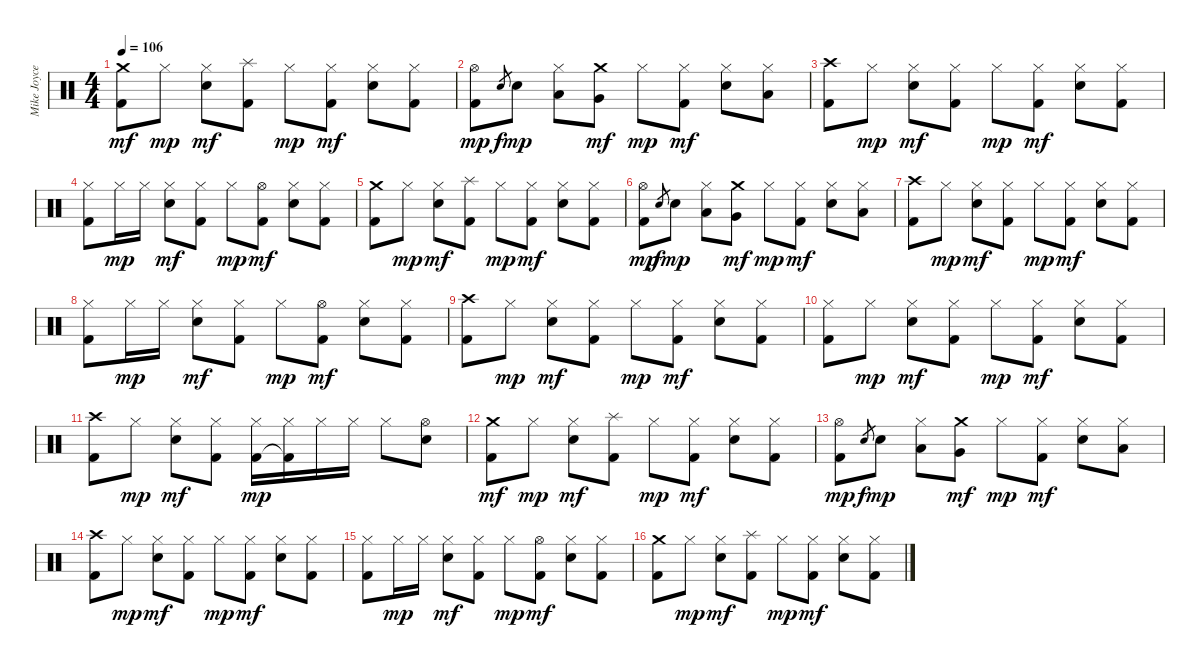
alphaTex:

\track ("Mike Joyce" "Mike Joyce") {instrument percussion}
\staff {score}
\articulation defaults
\ts (4 4)
\tempo 106
\clef neutral
\ks c
("Crash medium (hit)" "Kick (hit) 2").8{dy mf} "Hi-Hat (closed)".8{dy mp} ("Hi-Hat (closed)" "Electric Snare (hit)").8{dy mf} ("Splash (hit)" "Kick (hit) 2").8 "Hi-Hat (closed)".8{dy mp} ("Hi-Hat (closed)" "Kick (hit) 2").8{dy mf} ("Hi-Hat (closed)" "Electric Snare (hit)").8 ("Hi-Hat (closed)" "Kick (hit) 2").8 |
("Hi-Hat (open)" "Kick (hit) 2").8{dy mp} "Electric Snare (hit)".8{gr dy f} "Electric Snare (hit)".8{dy mp} ("Hi-Hat (closed)" "Low Tom (hit)").8 ("Crash medium (hit)" "Very Low Tom (hit)").8{dy mf} "Hi-Hat (closed)".8{dy mp} ("Hi-Hat (closed)" "Kick (hit) 2").8{dy mf} ("Hi-Hat (closed)" "Electric Snare (hit)").8 ("Hi-Hat (closed)" "Low Floor Tom (hit)").8 |
("Crash high (hit)" "Kick (hit) 2").8 "Hi-Hat (closed)".8{dy mp} ("Hi-Hat (closed)" "Electric Snare (hit)").8{dy mf} ("Hi-Hat (closed)" "Kick (hit) 2").8 "Hi-Hat (closed)".8{dy mp} ("Hi-Hat (closed)" "Kick (hit) 2").8{dy mf} ("Hi-Hat (closed)" "Electric Snare (hit)").8 ("Hi-Hat (closed)" "Kick (hit) 2").8 |
("Hi-Hat (closed)" "Kick (hit) 2").8 "Hi-Hat (closed)".16{dy mp} "Hi-Hat (closed)".16 ("Hi-Hat (closed)" "Electric Snare (hit)").8{dy mf} ("Hi-Hat (closed)" "Kick (hit) 2").8 "Hi-Hat (closed)".8{dy mp} ("Hi-Hat (open)" "Kick (hit) 2").8{dy mf} ("Hi-Hat (closed)" "Electric Snare (hit)").8 ("Hi-Hat (closed)" "Kick (hit) 2").8 |
("Crash medium (hit)" "Kick (hit) 2").8 "Hi-Hat (closed)".8{dy mp} ("Hi-Hat (closed)" "Electric Snare (hit)").8{dy mf} ("Splash (hit)" "Kick (hit) 2").8 "Hi-Hat (closed)".8{dy mp} ("Hi-Hat (closed)" "Kick (hit) 2").8{dy mf} ("Hi-Hat (closed)" "Electric Snare (hit)").8 ("Hi-Hat (closed)" "Kick (hit) 2").8 |
("Hi-Hat (open)" "Kick (hit) 2").8{dy mp} "Electric Snare (hit)".8{gr dy f} "Electric Snare (hit)".8{dy mp} ("Hi-Hat (closed)" "Low Tom (hit)").8 ("Crash medium (hit)" "Very Low Tom (hit)").8{dy mf} "Hi-Hat (closed)".8{dy mp} ("Hi-Hat (closed)" "Kick (hit) 2").8{dy mf} ("Hi-Hat (closed)" "Electric Snare (hit)").8 ("Hi-Hat (closed)" "Low Floor Tom (hit)").8 |
("Crash high (hit)" "Kick (hit) 2").8 "Hi-Hat (closed)".8{dy mp} ("Hi-Hat (closed)" "Electric Snare (hit)").8{dy mf} ("Hi-Hat (closed)" "Kick (hit) 2").8 "Hi-Hat (closed)".8{dy mp} ("Hi-Hat (closed)" "Kick (hit) 2").8{dy mf} ("Hi-Hat (closed)" "Electric Snare (hit)").8 ("Hi-Hat (closed)" "Kick (hit) 2").8 |
("Hi-Hat (closed)" "Kick (hit) 2").8 "Hi-Hat (closed)".16{dy mp} "Hi-Hat (closed)".16 ("Hi-Hat (closed)" "Electric Snare (hit)").8{dy mf} ("Hi-Hat (closed)" "Kick (hit) 2").8 "Hi-Hat (closed)".8{dy mp} ("Hi-Hat (open)" "Kick (hit) 2").8{dy mf} ("Hi-Hat (closed)" "Electric Snare (hit)").8 ("Hi-Hat (closed)" "Kick (hit) 2").8 |
("Crash high (hit)" "Kick (hit) 2").8 "Hi-Hat (closed)".8{dy mp} ("Hi-Hat (closed)" "Electric Snare (hit)").8{dy mf} ("Hi-Hat (closed)" "Kick (hit) 2").8 "Hi-Hat (closed)".8{dy mp} ("Hi-Hat (closed)" "Kick (hit) 2").8{dy mf} ("Hi-Hat (closed)" "Electric Snare (hit)").8 ("Hi-Hat (closed)" "Kick (hit) 2").8 |
("Hi-Hat (closed)" "Kick (hit) 2").8 "Hi-Hat (closed)".8{dy mp} ("Hi-Hat (closed)" "Electric Snare (hit)").8{dy mf} ("Hi-Hat (closed)" "Kick (hit) 2").8 "Hi-Hat (closed)".8{dy mp} ("Hi-Hat (closed)" "Kick (hit) 2").8{dy mf} ("Hi-Hat (closed)" "Electric Snare (hit)").8 ("Hi-Hat (closed)" "Kick (hit) 2").8 |
("Crash high (hit)" "Kick (hit) 2").8 "Hi-Hat (closed)".8{dy mp} ("Hi-Hat (closed)" "Electric Snare (hit)").8{dy mf} ("Hi-Hat (closed)" "Kick (hit) 2").8 ("Hi-Hat (closed)" "Kick (hit) 2").16{dy mp} ("Hi-Hat (closed)" "Kick (hit) 2"{t}).16 "Hi-Hat (closed)".16 "Hi-Hat (closed)".16 "Hi-Hat (closed)".8 ("Hi-Hat (open)" "Electric Snare (hit)").8 |
("Crash medium (hit)" "Kick (hit) 2").8{dy mf} "Hi-Hat (closed)".8{dy mp} ("Hi-Hat (closed)" "Electric Snare (hit)").8{dy mf} ("Splash (hit)" "Kick (hit) 2").8 "Hi-Hat (closed)".8{dy mp} ("Hi-Hat (closed)" "Kick (hit) 2").8{dy mf} ("Hi-Hat (closed)" "Electric Snare (hit)").8 ("Hi-Hat (closed)" "Kick (hit) 2").8 |
("Hi-Hat (open)" "Kick (hit) 2").8{dy mp} "Electric Snare (hit)".8{gr dy f} "Electric Snare (hit)".8{dy mp} ("Hi-Hat (closed)" "Low Tom (hit)").8 ("Crash medium (hit)" "Very Low Tom (hit)").8{dy mf} "Hi-Hat (closed)".8{dy mp} ("Hi-Hat (closed)" "Kick (hit) 2").8{dy mf} ("Hi-Hat (closed)" "Electric Snare (hit)").8 ("Hi-Hat (closed)" "Low Floor Tom (hit)").8 |
("Crash high (hit)" "Kick (hit) 2").8 "Hi-Hat (closed)".8{dy mp} ("Hi-Hat (closed)" "Electric Snare (hit)").8{dy mf} ("Hi-Hat (closed)" "Kick (hit) 2").8 "Hi-Hat (closed)".8{dy mp} ("Hi-Hat (closed)" "Kick (hit) 2").8{dy mf} ("Hi-Hat (closed)" "Electric Snare (hit)").8 ("Hi-Hat (closed)" "Kick (hit) 2").8 |
("Hi-Hat (closed)" "Kick (hit) 2").8 "Hi-Hat (closed)".16{dy mp} "Hi-Hat (closed)".16 ("Hi-Hat (closed)" "Electric Snare (hit)").8{dy mf} ("Hi-Hat (closed)" "Kick (hit) 2").8 "Hi-Hat (closed)".8{dy mp} ("Hi-Hat (open)" "Kick (hit) 2").8{dy mf} ("Hi-Hat (closed)" "Electric Snare (hit)").8 ("Hi-Hat (closed)" "Kick (hit) 2").8 |
("Crash medium (hit)" "Kick (hit) 2").8 "Hi-Hat (closed)".8{dy mp} ("Hi-Hat (closed)" "Electric Snare (hit)").8{dy mf} ("Splash (hit)" "Kick (hit) 2").8 "Hi-Hat (closed)".8{dy mp} ("Hi-Hat (closed)" "Kick (hit) 2").8{dy mf} ("Hi-Hat (closed)" "Electric Snare (hit)").8 ("Hi-Hat (closed)" "Kick (hit) 2").8
